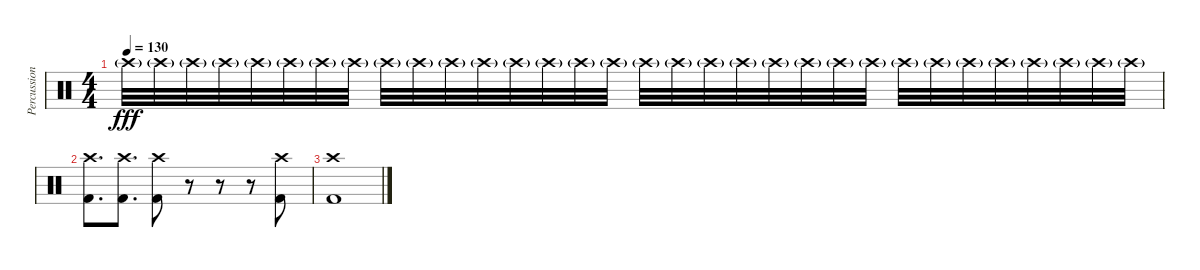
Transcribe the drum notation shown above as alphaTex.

\track ("Percussion" "Percussion") {instrument percussion}
\staff {score}
\articulation defaults
\ts (4 4)
\tempo 130
\clef neutral
\ks c "Crash high (hit)"{g}.32{dy fff} "Crash high (hit)"{g}.32 "Crash high (hit)"{g}.32 "Crash high (hit)"{g}.32 "Crash high (hit)"{g}.32 "Crash high (hit)"{g}.32 "Crash high (hit)"{g}.32 "Crash high (hit)"{g}.32 "Crash high (hit)"{g}.32 "Crash high (hit)"{g}.32 "Crash high (hit)"{g}.32 "Crash high (hit)"{g}.32 "Crash high (hit)"{g}.32 "Crash high (hit)"{g}.32 "Crash high (hit)"{g}.32 "Crash high (hit)"{g}.32 "Crash high (hit)"{g}.32 "Crash high (hit)"{g}.32 "Crash high (hit)"{g}.32 "Crash high (hit)"{g}.32 "Crash high (hit)"{g}.32 "Crash high (hit)"{g}.32 "Crash high (hit)"{g}.32 "Crash high (hit)"{g}.32 "Crash high (hit)"{g}.32 "Crash high (hit)"{g}.32 "Crash high (hit)"{g}.32 "Crash high (hit)"{g}.32 "Crash high (hit)"{g}.32 "Crash high (hit)"{g}.32 "Crash high (hit)"{g}.32 "Crash high (hit)"{g}.32
|
("Crash high (hit)" "Kick (hit) 2").8{d} ("Crash high (hit)" "Kick (hit) 2").8{d} ("Crash high (hit)" "Kick (hit) 2").8 r.8 r.8 r.8 ("Crash high (hit)" "Kick (hit) 2").8 |
("Crash high (hit)" "Kick (hit) 2").1
